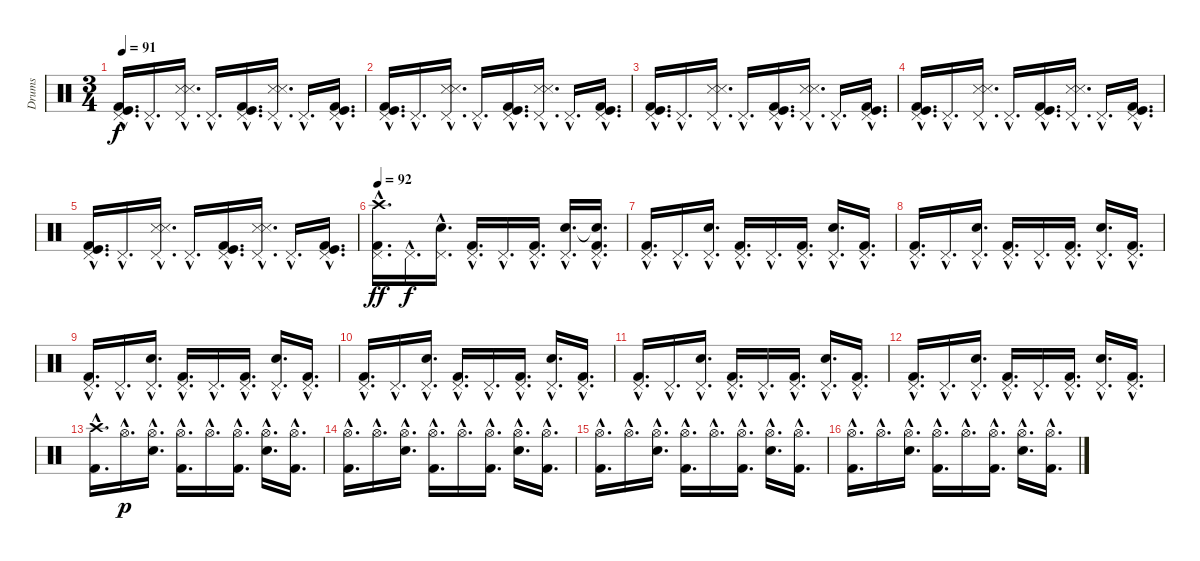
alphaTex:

\track ("Drums" "Drums") {instrument percussion}
\staff {score}
\articulation defaults
\ts (3 4)
\tempo 91
\clef neutral
\ks c
("Pedal Hi-Hat (hit)"{hac} "Kick (hit)"{hac} "Kick (hit) 2"{hac}).16{d dy f} "Pedal Hi-Hat (hit)"{hac}.16{d} ("Pedal Hi-Hat (hit)"{hac} "Snare (side stick) 3"{hac} "Snare (side stick) 3"{hac}).16{d} "Pedal Hi-Hat (hit)"{hac}.16{d} ("Pedal Hi-Hat (hit)"{hac} "Kick (hit)"{hac} "Kick (hit) 2"{hac}).16{d} ("Pedal Hi-Hat (hit)"{hac} "Snare (side stick) 3"{hac} "Snare (side stick) 3"{hac}).16{d} "Pedal Hi-Hat (hit)"{hac}.16{d} ("Pedal Hi-Hat (hit)"{hac} "Kick (hit)"{hac} "Kick (hit) 2"{hac}).16{d} |
("Pedal Hi-Hat (hit)"{hac} "Kick (hit)"{hac} "Kick (hit) 2"{hac}).16{d} "Pedal Hi-Hat (hit)"{hac}.16{d} ("Pedal Hi-Hat (hit)"{hac} "Snare (side stick) 3"{hac} "Snare (side stick) 3"{hac}).16{d} "Pedal Hi-Hat (hit)"{hac}.16{d} ("Pedal Hi-Hat (hit)"{hac} "Kick (hit)"{hac} "Kick (hit) 2"{hac}).16{d} ("Pedal Hi-Hat (hit)"{hac} "Snare (side stick) 3"{hac} "Snare (side stick) 3"{hac}).16{d} "Pedal Hi-Hat (hit)"{hac}.16{d} ("Pedal Hi-Hat (hit)"{hac} "Kick (hit)"{hac} "Kick (hit) 2"{hac}).16{d} |
("Pedal Hi-Hat (hit)"{hac} "Kick (hit)"{hac} "Kick (hit) 2"{hac}).16{d} "Pedal Hi-Hat (hit)"{hac}.16{d} ("Pedal Hi-Hat (hit)"{hac} "Snare (side stick) 3"{hac} "Snare (side stick) 3"{hac}).16{d} "Pedal Hi-Hat (hit)"{hac}.16{d} ("Pedal Hi-Hat (hit)"{hac} "Kick (hit)"{hac} "Kick (hit) 2"{hac}).16{d} ("Pedal Hi-Hat (hit)"{hac} "Snare (side stick) 3"{hac} "Snare (side stick) 3"{hac}).16{d} "Pedal Hi-Hat (hit)"{hac}.16{d} ("Pedal Hi-Hat (hit)"{hac} "Kick (hit)"{hac} "Kick (hit) 2"{hac}).16{d} |
("Pedal Hi-Hat (hit)"{hac} "Kick (hit)"{hac} "Kick (hit) 2"{hac}).16{d} "Pedal Hi-Hat (hit)"{hac}.16{d} ("Pedal Hi-Hat (hit)"{hac} "Snare (side stick) 3"{hac} "Snare (side stick) 3"{hac}).16{d} "Pedal Hi-Hat (hit)"{hac}.16{d} ("Pedal Hi-Hat (hit)"{hac} "Kick (hit)"{hac} "Kick (hit) 2"{hac}).16{d} ("Pedal Hi-Hat (hit)"{hac} "Snare (side stick) 3"{hac} "Snare (side stick) 3"{hac}).16{d} "Pedal Hi-Hat (hit)"{hac}.16{d} ("Pedal Hi-Hat (hit)"{hac} "Kick (hit)"{hac} "Kick (hit) 2"{hac}).16{d} |
("Pedal Hi-Hat (hit)"{hac} "Kick (hit)"{hac} "Kick (hit) 2"{hac}).16{d} "Pedal Hi-Hat (hit)"{hac}.16{d} ("Pedal Hi-Hat (hit)"{hac} "Snare (side stick) 3"{hac} "Snare (side stick) 3"{hac}).16{d} "Pedal Hi-Hat (hit)"{hac}.16{d} ("Pedal Hi-Hat (hit)"{hac} "Kick (hit)"{hac} "Kick (hit) 2"{hac}).16{d} ("Pedal Hi-Hat (hit)"{hac} "Snare (side stick) 3"{hac} "Snare (side stick) 3"{hac}).16{d} "Pedal Hi-Hat (hit)"{hac}.16{d} ("Pedal Hi-Hat (hit)"{hac} "Kick (hit)"{hac} "Kick (hit) 2"{hac}).16{d} |
\tempo 92
("Pedal Hi-Hat (hit)"{hac} "Crash high (hit)"{hac} "Kick (hit) 2"{hac}).16{d dy ff} "Pedal Hi-Hat (hit)"{hac}.16{d dy f} ("Pedal Hi-Hat (hit)"{hac} "Electric Snare (hit)"{hac}).16{d} ("Pedal Hi-Hat (hit)"{hac} "Kick (hit) 2"{hac}).16{d} "Pedal Hi-Hat (hit)"{hac}.16{d} ("Pedal Hi-Hat (hit)"{hac} "Kick (hit) 2"{hac}).16{d} ("Pedal Hi-Hat (hit)"{hac} "Electric Snare (hit)"{hac}).16{d} ("Pedal Hi-Hat (hit)"{hac} "Snare (hit)"{hac t} "Kick (hit) 2"{hac}).16{d} |
("Pedal Hi-Hat (hit)"{hac} "Kick (hit) 2"{hac}).16{d} "Pedal Hi-Hat (hit)"{hac}.16{d} ("Pedal Hi-Hat (hit)"{hac} "Electric Snare (hit)"{hac}).16{d} ("Pedal Hi-Hat (hit)"{hac} "Kick (hit) 2"{hac}).16{d} "Pedal Hi-Hat (hit)"{hac}.16{d} ("Pedal Hi-Hat (hit)"{hac} "Kick (hit) 2"{hac}).16{d} ("Pedal Hi-Hat (hit)"{hac} "Electric Snare (hit)"{hac}).16{d} ("Pedal Hi-Hat (hit)"{hac} "Kick (hit) 2"{hac}).16{d} |
("Pedal Hi-Hat (hit)"{hac} "Kick (hit) 2"{hac}).16{d} "Pedal Hi-Hat (hit)"{hac}.16{d} ("Pedal Hi-Hat (hit)"{hac} "Electric Snare (hit)"{hac}).16{d} ("Pedal Hi-Hat (hit)"{hac} "Kick (hit) 2"{hac}).16{d} "Pedal Hi-Hat (hit)"{hac}.16{d} ("Pedal Hi-Hat (hit)"{hac} "Kick (hit) 2"{hac}).16{d} ("Pedal Hi-Hat (hit)"{hac} "Electric Snare (hit)"{hac}).16{d} ("Pedal Hi-Hat (hit)"{hac} "Kick (hit) 2"{hac}).16{d} |
("Pedal Hi-Hat (hit)"{hac} "Kick (hit) 2"{hac}).16{d} "Pedal Hi-Hat (hit)"{hac}.16{d} ("Pedal Hi-Hat (hit)"{hac} "Electric Snare (hit)"{hac}).16{d} ("Pedal Hi-Hat (hit)"{hac} "Kick (hit) 2"{hac}).16{d} "Pedal Hi-Hat (hit)"{hac}.16{d} ("Pedal Hi-Hat (hit)"{hac} "Kick (hit) 2"{hac}).16{d} ("Pedal Hi-Hat (hit)"{hac} "Electric Snare (hit)"{hac}).16{d} ("Pedal Hi-Hat (hit)"{hac} "Kick (hit) 2"{hac}).16{d} |
("Pedal Hi-Hat (hit)"{hac} "Kick (hit) 2"{hac}).16{d} "Pedal Hi-Hat (hit)"{hac}.16{d} ("Pedal Hi-Hat (hit)"{hac} "Electric Snare (hit)"{hac}).16{d} ("Pedal Hi-Hat (hit)"{hac} "Kick (hit) 2"{hac}).16{d} "Pedal Hi-Hat (hit)"{hac}.16{d} ("Pedal Hi-Hat (hit)"{hac} "Kick (hit) 2"{hac}).16{d} ("Pedal Hi-Hat (hit)"{hac} "Electric Snare (hit)"{hac}).16{d} ("Pedal Hi-Hat (hit)"{hac} "Kick (hit) 2"{hac}).16{d} |
("Pedal Hi-Hat (hit)"{hac} "Kick (hit) 2"{hac}).16{d} "Pedal Hi-Hat (hit)"{hac}.16{d} ("Pedal Hi-Hat (hit)"{hac} "Electric Snare (hit)"{hac}).16{d} ("Pedal Hi-Hat (hit)"{hac} "Kick (hit) 2"{hac}).16{d} "Pedal Hi-Hat (hit)"{hac}.16{d} ("Pedal Hi-Hat (hit)"{hac} "Kick (hit) 2"{hac}).16{d} ("Pedal Hi-Hat (hit)"{hac} "Electric Snare (hit)"{hac}).16{d} ("Pedal Hi-Hat (hit)"{hac} "Kick (hit) 2"{hac}).16{d} |
("Pedal Hi-Hat (hit)"{hac} "Kick (hit) 2"{hac}).16{d} "Pedal Hi-Hat (hit)"{hac}.16{d} ("Pedal Hi-Hat (hit)"{hac} "Electric Snare (hit)"{hac}).16{d} ("Pedal Hi-Hat (hit)"{hac} "Kick (hit) 2"{hac}).16{d} "Pedal Hi-Hat (hit)"{hac}.16{d} ("Pedal Hi-Hat (hit)"{hac} "Kick (hit) 2"{hac}).16{d} ("Pedal Hi-Hat (hit)"{hac} "Electric Snare (hit)"{hac}).16{d} ("Pedal Hi-Hat (hit)"{hac} "Kick (hit) 2"{hac}).16{d} |
("Crash high (hit)"{hac} "Kick (hit) 2"{hac}).16{d} "Hi-Hat (open)"{hac}.16{d dy p} ("Hi-Hat (open)"{hac} "Electric Snare (hit)"{hac}).16{d} ("Hi-Hat (open)"{hac} "Kick (hit) 2"{hac}).16{d} "Hi-Hat (open)"{hac}.16{d} ("Hi-Hat (open)"{hac} "Kick (hit) 2"{hac}).16{d} ("Hi-Hat (open)"{hac} "Electric Snare (hit)"{hac}).16{d} ("Hi-Hat (open)"{hac} "Kick (hit) 2"{hac}).16{d} |
("Hi-Hat (open)"{hac} "Kick (hit) 2"{hac}).16{d} "Hi-Hat (open)"{hac}.16{d} ("Hi-Hat (open)"{hac} "Electric Snare (hit)"{hac}).16{d} ("Hi-Hat (open)"{hac} "Kick (hit) 2"{hac}).16{d} "Hi-Hat (open)"{hac}.16{d} ("Hi-Hat (open)"{hac} "Kick (hit) 2"{hac}).16{d} ("Hi-Hat (open)"{hac} "Electric Snare (hit)"{hac}).16{d} ("Hi-Hat (open)"{hac} "Kick (hit) 2"{hac}).16{d} |
("Hi-Hat (open)"{hac} "Kick (hit) 2"{hac}).16{d} "Hi-Hat (open)"{hac}.16{d} ("Hi-Hat (open)"{hac} "Electric Snare (hit)"{hac}).16{d} ("Hi-Hat (open)"{hac} "Kick (hit) 2"{hac}).16{d} "Hi-Hat (open)"{hac}.16{d} ("Hi-Hat (open)"{hac} "Kick (hit) 2"{hac}).16{d} ("Hi-Hat (open)"{hac} "Electric Snare (hit)"{hac}).16{d} ("Hi-Hat (open)"{hac} "Kick (hit) 2"{hac}).16{d} |
("Hi-Hat (open)"{hac} "Kick (hit) 2"{hac}).16{d} "Hi-Hat (open)"{hac}.16{d} ("Hi-Hat (open)"{hac} "Electric Snare (hit)"{hac}).16{d} ("Hi-Hat (open)"{hac} "Kick (hit) 2"{hac}).16{d} "Hi-Hat (open)"{hac}.16{d} ("Hi-Hat (open)"{hac} "Kick (hit) 2"{hac}).16{d} ("Hi-Hat (open)"{hac} "Electric Snare (hit)"{hac}).16{d} ("Hi-Hat (open)"{hac} "Kick (hit) 2"{hac}).16{d}
